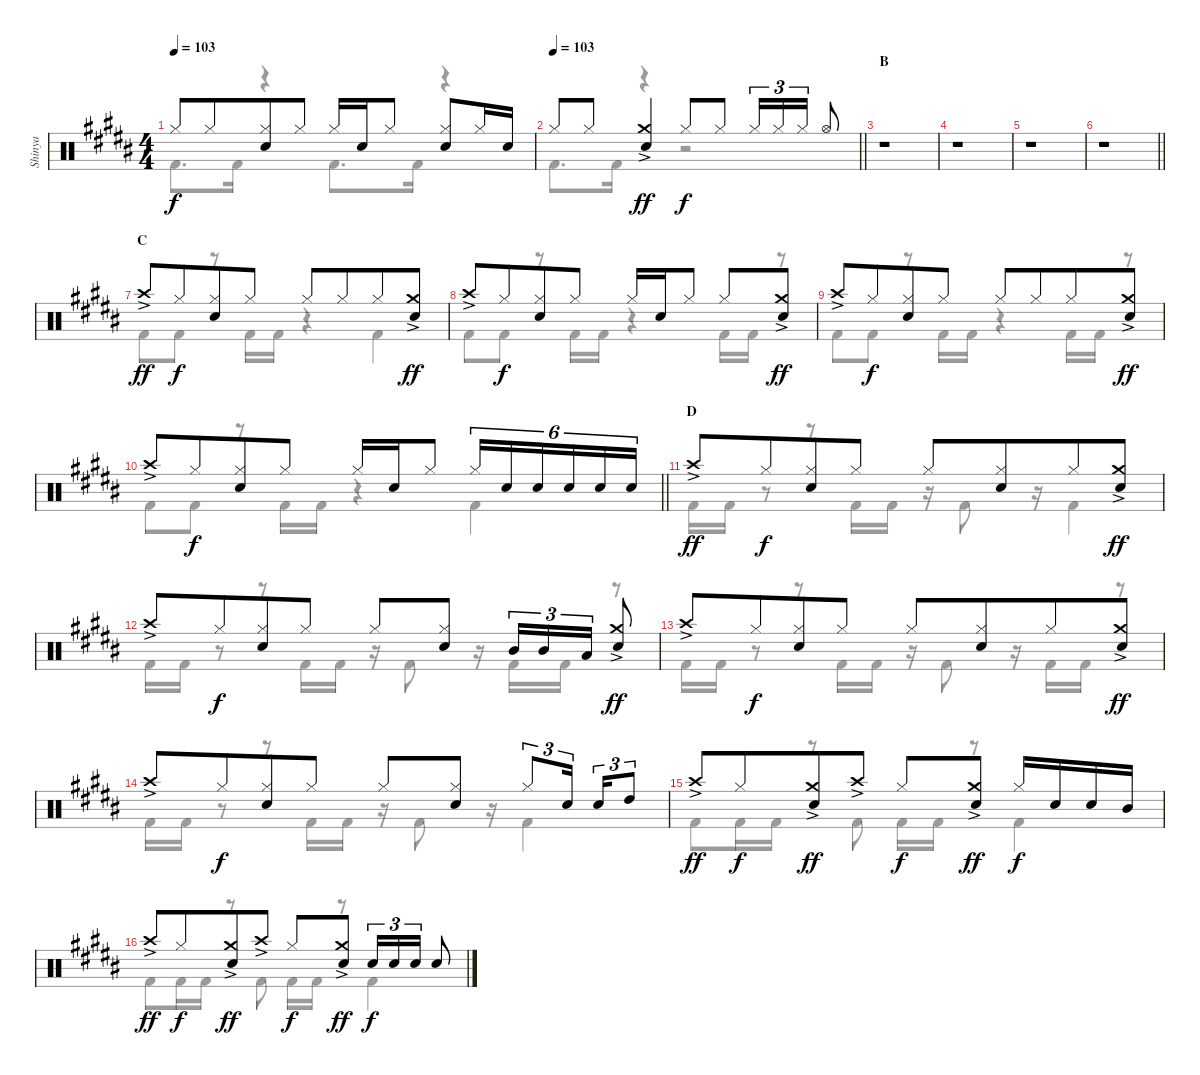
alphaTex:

\track ("Shinya" "Shinya") {instrument percussion}
\staff {score}
\articulation defaults
\voice
\ts (4 4)
\tempo 103
\clef neutral
\ks g#minor "Hi-Hat (closed)".8{dy f} "Hi-Hat (closed)".8{beam merge}
("Hi-Hat (closed)" "Snare (hit) 2").8 "Hi-Hat (closed)".8 "Hi-Hat (closed)".16 "Snare (hit) 2".16 "Hi-Hat (closed)".8 ("Hi-Hat (closed)" "Snare (hit) 2").8 "Hi-Hat (closed)".16 "Snare (hit) 2".16 |
\tempo 103
\barLineRight lightlight "Hi-Hat (closed)".8 "Hi-Hat (closed)".8
("Crash medium (hit)"{ac} "Snare (hit) 2").4{dy ff} "Hi-Hat (closed)".8{dy f} "Hi-Hat (closed)".8 "Hi-Hat (closed)".16{tu (3 2)} "Hi-Hat (closed)".16{tu (3 2)} "Hi-Hat (closed)".16{tu (3 2)} "Hi-Hat (open)".8 |
\section ("" "B")
r.1 |
r.1 |
r.1 |
\barLineRight lightlight
r.1 |
\section ("" "C")
"Crash high (hit)"{ac}.8{dy ff volume 15} "Hi-Hat (closed)".8{dy f beam merge} ("Hi-Hat (closed)" "Snare (hit) 2").8 "Hi-Hat (closed)".8 "Hi-Hat (closed)".8 "Hi-Hat (closed)".8{beam merge} "Hi-Hat (closed)".8 ("Crash medium (hit)"{ac} "Snare (hit) 2").8{dy ff} |
"Crash high (hit)"{ac}.8 "Hi-Hat (closed)".8{dy f beam merge} ("Hi-Hat (closed)" "Snare (hit) 2").8 "Hi-Hat (closed)".8 "Hi-Hat (closed)".16 "Snare (hit) 2".16 "Hi-Hat (closed)".8 "Hi-Hat (closed)".8 ("Crash medium (hit)"{ac} "Snare (hit) 2").8{dy ff} |
"Crash high (hit)"{ac}.8 "Hi-Hat (closed)".8{dy f beam merge} ("Hi-Hat (closed)" "Snare (hit) 2").8 "Hi-Hat (closed)".8 "Hi-Hat (closed)".8 "Hi-Hat (closed)".8{beam merge} "Hi-Hat (closed)".8 ("Crash medium (hit)"{ac} "Snare (hit) 2").8{dy ff} |
\barLineRight lightlight "Crash high (hit)"{ac}.8 "Hi-Hat (closed)".8{dy f beam merge}
("Hi-Hat (closed)" "Snare (hit) 2").8 "Hi-Hat (closed)".8 "Hi-Hat (closed)".16 "Snare (hit) 2".16 "Hi-Hat (closed)".8 "Hi-Hat (closed)".16{tu (6 4)} "Snare (hit) 2".16{tu (6 4)} "Snare (hit) 2".16{tu (6 4)} "Snare (hit) 2".16{tu (6 4)} "Snare (hit) 2".16{tu (6 4)} "Snare (hit) 2".16{tu (6 4)} |
\section ("" "D")
"Crash high (hit)"{ac}.8{dy ff} "Hi-Hat (closed)".8{dy f beam merge} ("Hi-Hat (closed)" "Snare (hit) 2").8 "Hi-Hat (closed)".8 "Hi-Hat (closed)".8 ("Hi-Hat (closed)" "Snare (hit) 2").8{beam merge} "Hi-Hat (closed)".8 ("Crash medium (hit)"{ac} "Snare (hit) 2").8{dy ff} |
"Crash high (hit)"{ac}.8 "Hi-Hat (closed)".8{dy f beam merge} ("Hi-Hat (closed)" "Snare (hit) 2").8 "Hi-Hat (closed)".8 "Hi-Hat (closed)".8 ("Hi-Hat (closed)" "Snare (hit) 2").8 "Mid Tom (hit)".16{tu (3 2)} "Mid Tom (hit)".16{tu (3 2)} "Low Tom (hit)".16{tu (3 2)} ("Crash medium (hit)"{ac} "Snare (hit) 2").8{dy ff} |
"Crash high (hit)"{ac}.8 "Hi-Hat (closed)".8{dy f beam merge} ("Hi-Hat (closed)" "Snare (hit) 2").8 "Hi-Hat (closed)".8 "Hi-Hat (closed)".8 ("Hi-Hat (closed)" "Snare (hit) 2").8{beam merge} "Hi-Hat (closed)".8 ("Crash medium (hit)"{ac} "Snare (hit) 2").8{dy ff} |
"Crash high (hit)"{ac}.8 "Hi-Hat (closed)".8{dy f beam merge} ("Hi-Hat (closed)" "Snare (hit) 2").8 "Hi-Hat (closed)".8 "Hi-Hat (closed)".8 ("Hi-Hat (closed)" "Snare (hit) 2").8 "Hi-Hat (closed)".8{tu (3 2)} "Snare (hit) 2".16{tu (3 2)} "Snare (hit) 2".16{tu (3 2)} "High Tom (hit)".8{tu (3 2)} |
"Crash high (hit)"{ac}.8{dy ff} "Hi-Hat (closed)".8{dy f beam merge} ("Crash medium (hit)"{ac} "Snare (hit) 2").8{dy ff} "Crash high (hit)"{ac}.8 "Hi-Hat (closed)".8{dy f} ("Crash medium (hit)"{ac} "Snare (hit) 2").8{dy ff} "Hi-Hat (closed)".16{dy f} "Snare (hit) 2".16 "Snare (hit) 2".16 "Mid Tom (hit)".16 |
"Crash high (hit)"{ac}.8{dy ff} "Hi-Hat (closed)".8{dy f beam merge} ("Crash medium (hit)"{ac} "Snare (hit) 2").8{dy ff} "Crash high (hit)"{ac}.8 "Hi-Hat (closed)".8{dy f} ("Crash medium (hit)"{ac} "Snare (hit) 2").8{dy ff} "Snare (hit) 2".16{tu (3 2) dy f} "Snare (hit) 2".16{tu (3 2)} "Snare (hit) 2".16{tu (3 2)} "Snare (hit) 2".8
\voice
\clef neutral
\ottava regular
\simile none
\ks g#minor "Kick (hit) 2".8{d dy f} "Kick (hit) 2".16
r.4 "Kick (hit) 2".8{d} "Kick (hit) 2".16 r.4 |
\barLineRight lightlight "Kick (hit) 2".8{d} "Kick (hit) 2".16
r.4 r.2 |
r.1 |
r.1 |
r.1 |
\barLineRight lightlight
r.1 |
"Kick (hit) 2".8 "Kick (hit) 2".8 r.8 "Kick (hit) 2".16 "Kick (hit) 2".16 r.4 "Kick (hit) 2".4 |
"Kick (hit) 2".8 "Kick (hit) 2".8 r.8 "Kick (hit) 2".16 "Kick (hit) 2".16 r.4 "Kick (hit) 2".16 "Kick (hit) 2".16 r.8 |
"Kick (hit) 2".8 "Kick (hit) 2".8 r.8 "Kick (hit) 2".16 "Kick (hit) 2".16 r.4 "Kick (hit) 2".16 "Kick (hit) 2".16 r.8 |
\barLineRight lightlight "Kick (hit) 2".8 "Kick (hit) 2".8
r.8 "Kick (hit) 2".16 "Kick (hit) 2".16 r.4 "Kick (hit) 2".4 |
"Kick (hit) 2".16 "Kick (hit) 2".16 r.8 r.8 "Kick (hit) 2".16 "Kick (hit) 2".16 r.16 "Kick (hit) 2".8 r.16 "Kick (hit) 2".4 |
"Kick (hit) 2".16 "Kick (hit) 2".16 r.8 r.8 "Kick (hit) 2".16 "Kick (hit) 2".16 r.16 "Kick (hit) 2".8 r.16 "Kick (hit) 2".16 "Kick (hit) 2".16 r.8 |
"Kick (hit) 2".16 "Kick (hit) 2".16 r.8 r.8 "Kick (hit) 2".16 "Kick (hit) 2".16 r.16 "Kick (hit) 2".8 r.16 "Kick (hit) 2".16 "Kick (hit) 2".16 r.8 |
"Kick (hit) 2".16 "Kick (hit) 2".16 r.8 r.8 "Kick (hit) 2".16 "Kick (hit) 2".16 r.16 "Kick (hit) 2".8 r.16 "Kick (hit) 2".4 |
"Kick (hit) 2".8 "Kick (hit) 2".16 "Kick (hit) 2".16 r.8 "Kick (hit) 2".8 "Kick (hit) 2".16 "Kick (hit) 2".16 r.8 "Kick (hit) 2".4 |
"Kick (hit) 2".8 "Kick (hit) 2".16 "Kick (hit) 2".16 r.8 "Kick (hit) 2".8 "Kick (hit) 2".16 "Kick (hit) 2".16 r.8 "Kick (hit) 2".4
